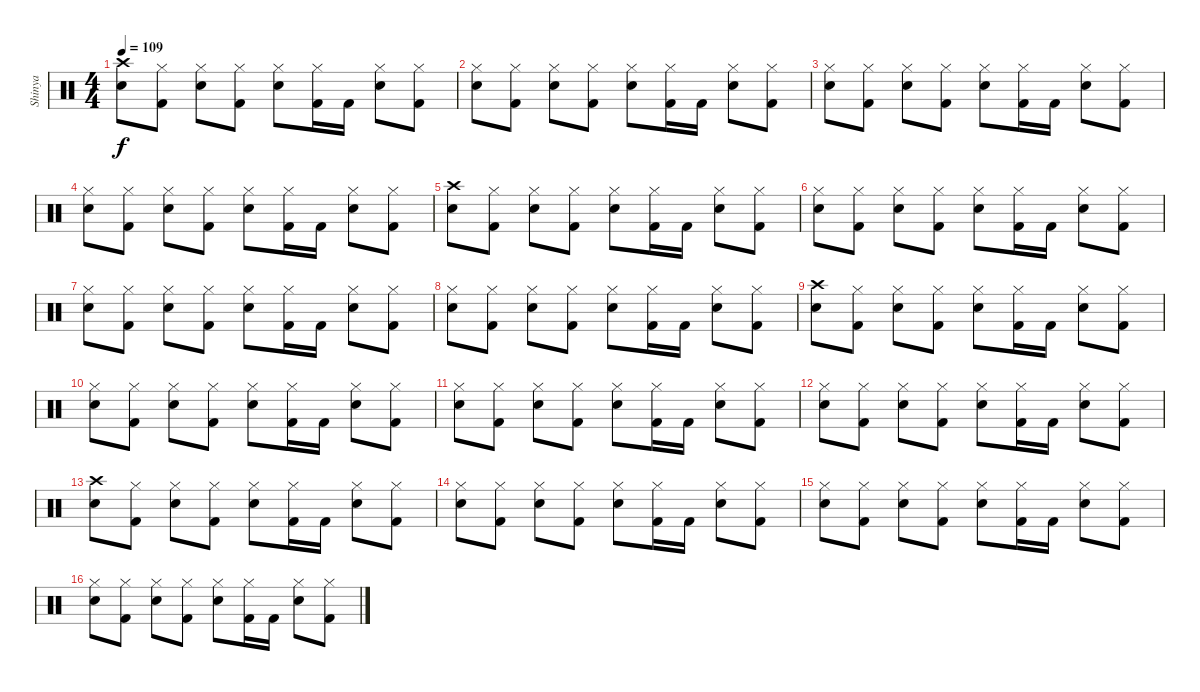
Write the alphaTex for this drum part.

\track ("Shinya" "Shinya") {instrument percussion}
\staff {score}
\articulation defaults
\ts (4 4)
\tempo 109
\clef neutral
\ks c
("Crash high (hit)" "Snare (hit) 2").8{dy f} ("Hi-Hat (closed)" "Kick (hit) 2").8 ("Hi-Hat (closed)" "Snare (hit) 2").8 ("Hi-Hat (closed)" "Kick (hit) 2").8 ("Hi-Hat (closed)" "Snare (hit) 2").8 ("Hi-Hat (closed)" "Kick (hit) 2").16 "Kick (hit) 2".16 ("Hi-Hat (closed)" "Snare (hit) 2").8 ("Hi-Hat (closed)" "Kick (hit) 2").8 |
("Hi-Hat (closed)" "Snare (hit) 2").8 ("Hi-Hat (closed)" "Kick (hit) 2").8 ("Hi-Hat (closed)" "Snare (hit) 2").8 ("Hi-Hat (closed)" "Kick (hit) 2").8 ("Hi-Hat (closed)" "Snare (hit) 2").8 ("Hi-Hat (closed)" "Kick (hit) 2").16 "Kick (hit) 2".16 ("Hi-Hat (closed)" "Snare (hit) 2").8 ("Hi-Hat (closed)" "Kick (hit) 2").8 |
("Hi-Hat (closed)" "Snare (hit) 2").8 ("Hi-Hat (closed)" "Kick (hit) 2").8 ("Hi-Hat (closed)" "Snare (hit) 2").8 ("Hi-Hat (closed)" "Kick (hit) 2").8 ("Hi-Hat (closed)" "Snare (hit) 2").8 ("Hi-Hat (closed)" "Kick (hit) 2").16 "Kick (hit) 2".16 ("Hi-Hat (closed)" "Snare (hit) 2").8 ("Hi-Hat (closed)" "Kick (hit) 2").8 |
("Hi-Hat (closed)" "Snare (hit) 2").8 ("Hi-Hat (closed)" "Kick (hit) 2").8 ("Hi-Hat (closed)" "Snare (hit) 2").8 ("Hi-Hat (closed)" "Kick (hit) 2").8 ("Hi-Hat (closed)" "Snare (hit) 2").8 ("Hi-Hat (closed)" "Kick (hit) 2").16 "Kick (hit) 2".16 ("Hi-Hat (closed)" "Snare (hit) 2").8 ("Hi-Hat (closed)" "Kick (hit) 2").8 |
("Crash high (hit)" "Snare (hit) 2").8 ("Hi-Hat (closed)" "Kick (hit) 2").8 ("Hi-Hat (closed)" "Snare (hit) 2").8 ("Hi-Hat (closed)" "Kick (hit) 2").8 ("Hi-Hat (closed)" "Snare (hit) 2").8 ("Hi-Hat (closed)" "Kick (hit) 2").16 "Kick (hit) 2".16 ("Hi-Hat (closed)" "Snare (hit) 2").8 ("Hi-Hat (closed)" "Kick (hit) 2").8 |
("Hi-Hat (closed)" "Snare (hit) 2").8 ("Hi-Hat (closed)" "Kick (hit) 2").8 ("Hi-Hat (closed)" "Snare (hit) 2").8 ("Hi-Hat (closed)" "Kick (hit) 2").8 ("Hi-Hat (closed)" "Snare (hit) 2").8 ("Hi-Hat (closed)" "Kick (hit) 2").16 "Kick (hit) 2".16 ("Hi-Hat (closed)" "Snare (hit) 2").8 ("Hi-Hat (closed)" "Kick (hit) 2").8 |
("Hi-Hat (closed)" "Snare (hit) 2").8 ("Hi-Hat (closed)" "Kick (hit) 2").8 ("Hi-Hat (closed)" "Snare (hit) 2").8 ("Hi-Hat (closed)" "Kick (hit) 2").8 ("Hi-Hat (closed)" "Snare (hit) 2").8 ("Hi-Hat (closed)" "Kick (hit) 2").16 "Kick (hit) 2".16 ("Hi-Hat (closed)" "Snare (hit) 2").8 ("Hi-Hat (closed)" "Kick (hit) 2").8 |
("Hi-Hat (closed)" "Snare (hit) 2").8 ("Hi-Hat (closed)" "Kick (hit) 2").8 ("Hi-Hat (closed)" "Snare (hit) 2").8 ("Hi-Hat (closed)" "Kick (hit) 2").8 ("Hi-Hat (closed)" "Snare (hit) 2").8 ("Hi-Hat (closed)" "Kick (hit) 2").16 "Kick (hit) 2".16 ("Hi-Hat (closed)" "Snare (hit) 2").8 ("Hi-Hat (closed)" "Kick (hit) 2").8 |
("Crash high (hit)" "Snare (hit) 2").8 ("Hi-Hat (closed)" "Kick (hit) 2").8 ("Hi-Hat (closed)" "Snare (hit) 2").8 ("Hi-Hat (closed)" "Kick (hit) 2").8 ("Hi-Hat (closed)" "Snare (hit) 2").8 ("Hi-Hat (closed)" "Kick (hit) 2").16 "Kick (hit) 2".16 ("Hi-Hat (closed)" "Snare (hit) 2").8 ("Hi-Hat (closed)" "Kick (hit) 2").8 |
("Hi-Hat (closed)" "Snare (hit) 2").8 ("Hi-Hat (closed)" "Kick (hit) 2").8 ("Hi-Hat (closed)" "Snare (hit) 2").8 ("Hi-Hat (closed)" "Kick (hit) 2").8 ("Hi-Hat (closed)" "Snare (hit) 2").8 ("Hi-Hat (closed)" "Kick (hit) 2").16 "Kick (hit) 2".16 ("Hi-Hat (closed)" "Snare (hit) 2").8 ("Hi-Hat (closed)" "Kick (hit) 2").8 |
("Hi-Hat (closed)" "Snare (hit) 2").8 ("Hi-Hat (closed)" "Kick (hit) 2").8 ("Hi-Hat (closed)" "Snare (hit) 2").8 ("Hi-Hat (closed)" "Kick (hit) 2").8 ("Hi-Hat (closed)" "Snare (hit) 2").8 ("Hi-Hat (closed)" "Kick (hit) 2").16 "Kick (hit) 2".16 ("Hi-Hat (closed)" "Snare (hit) 2").8 ("Hi-Hat (closed)" "Kick (hit) 2").8 |
("Hi-Hat (closed)" "Snare (hit) 2").8 ("Hi-Hat (closed)" "Kick (hit) 2").8 ("Hi-Hat (closed)" "Snare (hit) 2").8 ("Hi-Hat (closed)" "Kick (hit) 2").8 ("Hi-Hat (closed)" "Snare (hit) 2").8 ("Hi-Hat (closed)" "Kick (hit) 2").16 "Kick (hit) 2".16 ("Hi-Hat (closed)" "Snare (hit) 2").8 ("Hi-Hat (closed)" "Kick (hit) 2").8 |
("Crash high (hit)" "Snare (hit) 2").8 ("Hi-Hat (closed)" "Kick (hit) 2").8 ("Hi-Hat (closed)" "Snare (hit) 2").8 ("Hi-Hat (closed)" "Kick (hit) 2").8 ("Hi-Hat (closed)" "Snare (hit) 2").8 ("Hi-Hat (closed)" "Kick (hit) 2").16 "Kick (hit) 2".16 ("Hi-Hat (closed)" "Snare (hit) 2").8 ("Hi-Hat (closed)" "Kick (hit) 2").8 |
("Hi-Hat (closed)" "Snare (hit) 2").8 ("Hi-Hat (closed)" "Kick (hit) 2").8 ("Hi-Hat (closed)" "Snare (hit) 2").8 ("Hi-Hat (closed)" "Kick (hit) 2").8 ("Hi-Hat (closed)" "Snare (hit) 2").8 ("Hi-Hat (closed)" "Kick (hit) 2").16 "Kick (hit) 2".16 ("Hi-Hat (closed)" "Snare (hit) 2").8 ("Hi-Hat (closed)" "Kick (hit) 2").8 |
("Hi-Hat (closed)" "Snare (hit) 2").8 ("Hi-Hat (closed)" "Kick (hit) 2").8 ("Hi-Hat (closed)" "Snare (hit) 2").8 ("Hi-Hat (closed)" "Kick (hit) 2").8 ("Hi-Hat (closed)" "Snare (hit) 2").8 ("Hi-Hat (closed)" "Kick (hit) 2").16 "Kick (hit) 2".16 ("Hi-Hat (closed)" "Snare (hit) 2").8 ("Hi-Hat (closed)" "Kick (hit) 2").8 |
("Hi-Hat (closed)" "Snare (hit) 2").8 ("Hi-Hat (closed)" "Kick (hit) 2").8 ("Hi-Hat (closed)" "Snare (hit) 2").8 ("Hi-Hat (closed)" "Kick (hit) 2").8 ("Hi-Hat (closed)" "Snare (hit) 2").8 ("Hi-Hat (closed)" "Kick (hit) 2").16 "Kick (hit) 2".16 ("Hi-Hat (closed)" "Snare (hit) 2").8 ("Hi-Hat (closed)" "Kick (hit) 2").8
